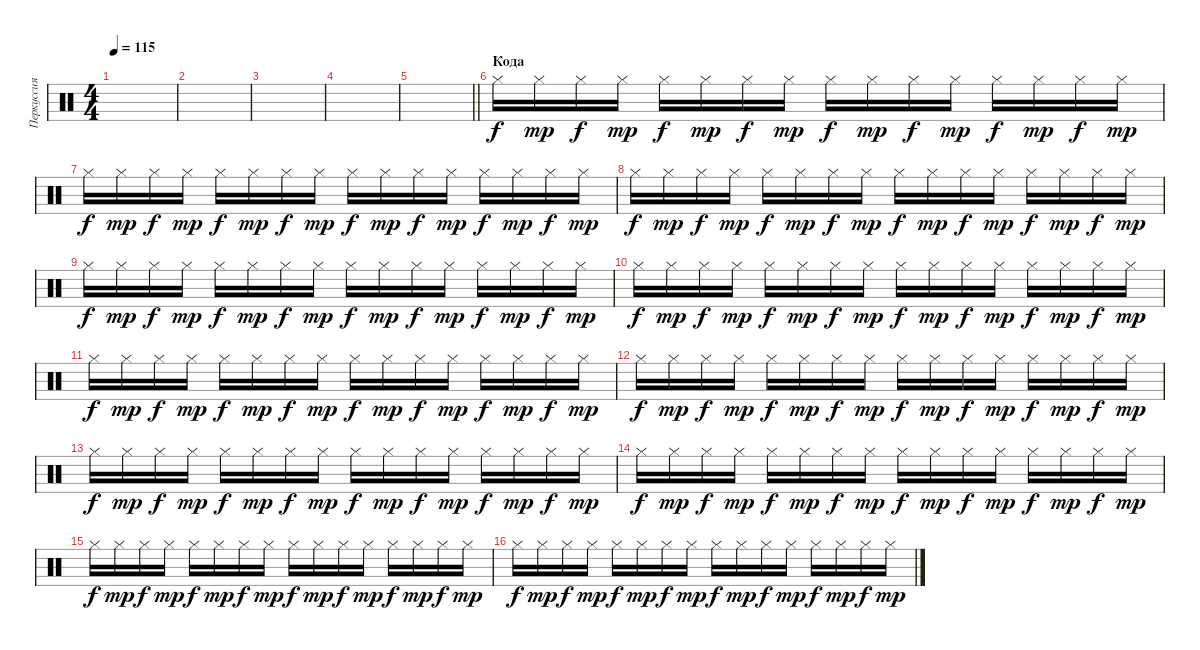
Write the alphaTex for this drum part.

\track ("Перкуссия" "Перкуссия") {instrument percussion}
\staff {score}
\articulation defaults
\ts (4 4)
\tempo 115
\clef neutral
\ks c
|
|
|
|
\barLineRight lightlight
|
\section ("" "Кода")
"Hi-Hat (closed)".16 "Hi-Hat (closed)".16{dy mp} "Hi-Hat (closed)".16{dy f} "Hi-Hat (closed)".16{dy mp} "Hi-Hat (closed)".16{dy f} "Hi-Hat (closed)".16{dy mp} "Hi-Hat (closed)".16{dy f} "Hi-Hat (closed)".16{dy mp} "Hi-Hat (closed)".16{dy f} "Hi-Hat (closed)".16{dy mp} "Hi-Hat (closed)".16{dy f} "Hi-Hat (closed)".16{dy mp} "Hi-Hat (closed)".16{dy f} "Hi-Hat (closed)".16{dy mp} "Hi-Hat (closed)".16{dy f} "Hi-Hat (closed)".16{dy mp} |
"Hi-Hat (closed)".16{dy f} "Hi-Hat (closed)".16{dy mp} "Hi-Hat (closed)".16{dy f} "Hi-Hat (closed)".16{dy mp} "Hi-Hat (closed)".16{dy f} "Hi-Hat (closed)".16{dy mp} "Hi-Hat (closed)".16{dy f} "Hi-Hat (closed)".16{dy mp} "Hi-Hat (closed)".16{dy f} "Hi-Hat (closed)".16{dy mp} "Hi-Hat (closed)".16{dy f} "Hi-Hat (closed)".16{dy mp} "Hi-Hat (closed)".16{dy f} "Hi-Hat (closed)".16{dy mp} "Hi-Hat (closed)".16{dy f} "Hi-Hat (closed)".16{dy mp} |
"Hi-Hat (closed)".16{dy f} "Hi-Hat (closed)".16{dy mp} "Hi-Hat (closed)".16{dy f} "Hi-Hat (closed)".16{dy mp} "Hi-Hat (closed)".16{dy f} "Hi-Hat (closed)".16{dy mp} "Hi-Hat (closed)".16{dy f} "Hi-Hat (closed)".16{dy mp} "Hi-Hat (closed)".16{dy f} "Hi-Hat (closed)".16{dy mp} "Hi-Hat (closed)".16{dy f} "Hi-Hat (closed)".16{dy mp} "Hi-Hat (closed)".16{dy f} "Hi-Hat (closed)".16{dy mp} "Hi-Hat (closed)".16{dy f} "Hi-Hat (closed)".16{dy mp} |
"Hi-Hat (closed)".16{dy f} "Hi-Hat (closed)".16{dy mp} "Hi-Hat (closed)".16{dy f} "Hi-Hat (closed)".16{dy mp} "Hi-Hat (closed)".16{dy f} "Hi-Hat (closed)".16{dy mp} "Hi-Hat (closed)".16{dy f} "Hi-Hat (closed)".16{dy mp} "Hi-Hat (closed)".16{dy f} "Hi-Hat (closed)".16{dy mp} "Hi-Hat (closed)".16{dy f} "Hi-Hat (closed)".16{dy mp} "Hi-Hat (closed)".16{dy f} "Hi-Hat (closed)".16{dy mp} "Hi-Hat (closed)".16{dy f} "Hi-Hat (closed)".16{dy mp} |
"Hi-Hat (closed)".16{dy f} "Hi-Hat (closed)".16{dy mp} "Hi-Hat (closed)".16{dy f} "Hi-Hat (closed)".16{dy mp} "Hi-Hat (closed)".16{dy f} "Hi-Hat (closed)".16{dy mp} "Hi-Hat (closed)".16{dy f} "Hi-Hat (closed)".16{dy mp} "Hi-Hat (closed)".16{dy f} "Hi-Hat (closed)".16{dy mp} "Hi-Hat (closed)".16{dy f} "Hi-Hat (closed)".16{dy mp} "Hi-Hat (closed)".16{dy f} "Hi-Hat (closed)".16{dy mp} "Hi-Hat (closed)".16{dy f} "Hi-Hat (closed)".16{dy mp} |
"Hi-Hat (closed)".16{dy f} "Hi-Hat (closed)".16{dy mp} "Hi-Hat (closed)".16{dy f} "Hi-Hat (closed)".16{dy mp} "Hi-Hat (closed)".16{dy f} "Hi-Hat (closed)".16{dy mp} "Hi-Hat (closed)".16{dy f} "Hi-Hat (closed)".16{dy mp} "Hi-Hat (closed)".16{dy f} "Hi-Hat (closed)".16{dy mp} "Hi-Hat (closed)".16{dy f} "Hi-Hat (closed)".16{dy mp} "Hi-Hat (closed)".16{dy f} "Hi-Hat (closed)".16{dy mp} "Hi-Hat (closed)".16{dy f} "Hi-Hat (closed)".16{dy mp} |
"Hi-Hat (closed)".16{dy f} "Hi-Hat (closed)".16{dy mp} "Hi-Hat (closed)".16{dy f} "Hi-Hat (closed)".16{dy mp} "Hi-Hat (closed)".16{dy f} "Hi-Hat (closed)".16{dy mp} "Hi-Hat (closed)".16{dy f} "Hi-Hat (closed)".16{dy mp} "Hi-Hat (closed)".16{dy f} "Hi-Hat (closed)".16{dy mp} "Hi-Hat (closed)".16{dy f} "Hi-Hat (closed)".16{dy mp} "Hi-Hat (closed)".16{dy f} "Hi-Hat (closed)".16{dy mp} "Hi-Hat (closed)".16{dy f} "Hi-Hat (closed)".16{dy mp} |
"Hi-Hat (closed)".16{dy f} "Hi-Hat (closed)".16{dy mp} "Hi-Hat (closed)".16{dy f} "Hi-Hat (closed)".16{dy mp} "Hi-Hat (closed)".16{dy f} "Hi-Hat (closed)".16{dy mp} "Hi-Hat (closed)".16{dy f} "Hi-Hat (closed)".16{dy mp} "Hi-Hat (closed)".16{dy f} "Hi-Hat (closed)".16{dy mp} "Hi-Hat (closed)".16{dy f} "Hi-Hat (closed)".16{dy mp} "Hi-Hat (closed)".16{dy f} "Hi-Hat (closed)".16{dy mp} "Hi-Hat (closed)".16{dy f} "Hi-Hat (closed)".16{dy mp} |
"Hi-Hat (closed)".16{dy f} "Hi-Hat (closed)".16{dy mp} "Hi-Hat (closed)".16{dy f} "Hi-Hat (closed)".16{dy mp} "Hi-Hat (closed)".16{dy f} "Hi-Hat (closed)".16{dy mp} "Hi-Hat (closed)".16{dy f} "Hi-Hat (closed)".16{dy mp} "Hi-Hat (closed)".16{dy f} "Hi-Hat (closed)".16{dy mp} "Hi-Hat (closed)".16{dy f} "Hi-Hat (closed)".16{dy mp} "Hi-Hat (closed)".16{dy f} "Hi-Hat (closed)".16{dy mp} "Hi-Hat (closed)".16{dy f} "Hi-Hat (closed)".16{dy mp} |
"Hi-Hat (closed)".16{dy f} "Hi-Hat (closed)".16{dy mp} "Hi-Hat (closed)".16{dy f} "Hi-Hat (closed)".16{dy mp} "Hi-Hat (closed)".16{dy f} "Hi-Hat (closed)".16{dy mp} "Hi-Hat (closed)".16{dy f} "Hi-Hat (closed)".16{dy mp} "Hi-Hat (closed)".16{dy f} "Hi-Hat (closed)".16{dy mp} "Hi-Hat (closed)".16{dy f} "Hi-Hat (closed)".16{dy mp} "Hi-Hat (closed)".16{dy f} "Hi-Hat (closed)".16{dy mp} "Hi-Hat (closed)".16{dy f} "Hi-Hat (closed)".16{dy mp} |
"Hi-Hat (closed)".16{dy f} "Hi-Hat (closed)".16{dy mp} "Hi-Hat (closed)".16{dy f} "Hi-Hat (closed)".16{dy mp} "Hi-Hat (closed)".16{dy f} "Hi-Hat (closed)".16{dy mp} "Hi-Hat (closed)".16{dy f} "Hi-Hat (closed)".16{dy mp} "Hi-Hat (closed)".16{dy f} "Hi-Hat (closed)".16{dy mp} "Hi-Hat (closed)".16{dy f} "Hi-Hat (closed)".16{dy mp} "Hi-Hat (closed)".16{dy f} "Hi-Hat (closed)".16{dy mp} "Hi-Hat (closed)".16{dy f} "Hi-Hat (closed)".16{dy mp}
